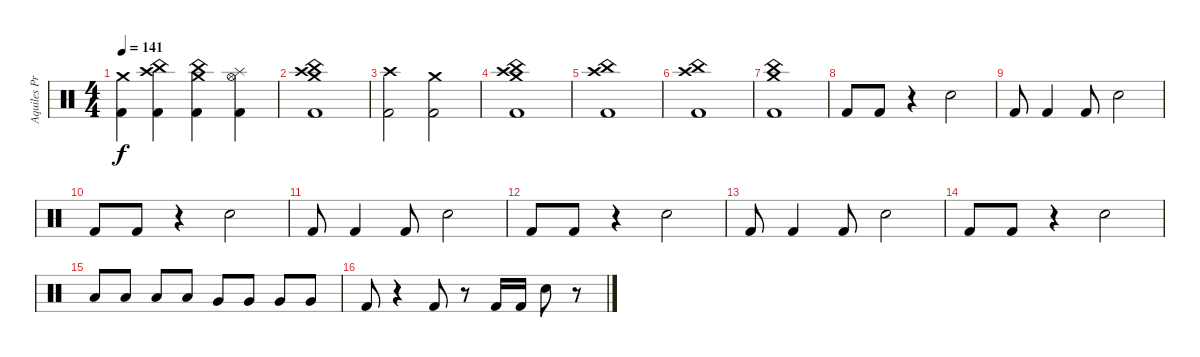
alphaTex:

\track ("Aquiles Priester" "Aquiles Pr") {instrument percussion}
\staff {score}
\articulation defaults
\ts (4 4)
\tempo 141
\clef neutral
\ks c
("Crash medium (hit)" "Kick (hit) 2").4{dy f} ("Crash high (hit)" "China (hit)" "Kick (hit) 2").4 ("Crash medium (hit)" "China (hit)" "Kick (hit) 2").4 ("Splash (hit)" "Hi-Hat (open)" "Kick (hit) 2").4 |
("China (hit)" "Crash high (hit)" "Crash medium (hit)" "Kick (hit) 2").1 |
("Crash high (hit)" "Kick (hit) 2").2 ("Crash medium (hit)" "Kick (hit) 2").2 |
("China (hit)" "Crash medium (hit)" "Crash high (hit)" "Kick (hit) 2").1 |
("Crash high (hit)" "China (hit)" "Kick (hit) 2").1 |
("China (hit)" "Crash high (hit)" "Kick (hit) 2").1 |
("China (hit)" "Crash medium (hit)" "Kick (hit) 2").1 |
"Kick (hit) 2".8 "Kick (hit) 2".8 r.4 "Electric Snare (hit)".2 |
"Kick (hit) 2".8 "Kick (hit) 2".4 "Kick (hit) 2".8 "Electric Snare (hit)".2 |
"Kick (hit) 2".8 "Kick (hit) 2".8 r.4 "Electric Snare (hit)".2 |
"Kick (hit) 2".8 "Kick (hit) 2".4 "Kick (hit) 2".8 "Electric Snare (hit)".2 |
"Kick (hit) 2".8 "Kick (hit) 2".8 r.4 "Electric Snare (hit)".2 |
"Kick (hit) 2".8 "Kick (hit) 2".4 "Kick (hit) 2".8 "Electric Snare (hit)".2 |
"Kick (hit) 2".8 "Kick (hit) 2".8 r.4 "Electric Snare (hit)".2 |
"Low Floor Tom (hit)".8 "Low Floor Tom (hit)".8 "Low Floor Tom (hit)".8 "Low Floor Tom (hit)".8 "Very Low Tom (hit)".8 "Very Low Tom (hit)".8 "Very Low Tom (hit)".8 "Very Low Tom (hit)".8 |
"Kick (hit) 2".8 r.4 "Kick (hit) 2".8 r.8 "Kick (hit) 2".16 "Kick (hit) 2".16 "Electric Snare (hit)".8 r.8
